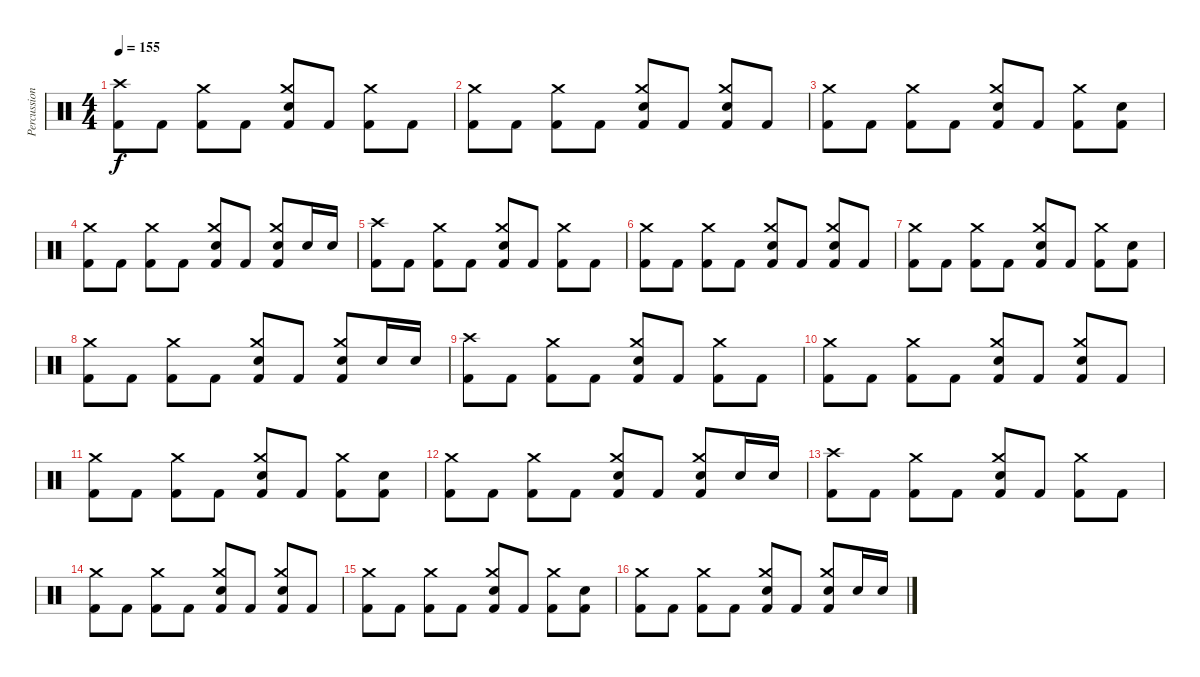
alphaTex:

\track ("Percussion" "Percussion") {instrument percussion}
\staff {score}
\articulation defaults
\ts (4 4)
\tempo 155
\clef neutral
\ks c
("Crash high (hit)" "Kick (hit) 2").8{dy f} "Kick (hit) 2".8 ("Crash medium (hit)" "Kick (hit) 2").8 "Kick (hit) 2".8 ("Crash medium (hit)" "Electric Snare (hit)" "Kick (hit) 2").8 "Kick (hit) 2".8 ("Crash medium (hit)" "Kick (hit) 2").8 "Kick (hit) 2".8 |
("Crash medium (hit)" "Kick (hit) 2").8 "Kick (hit) 2".8 ("Crash medium (hit)" "Kick (hit) 2").8 "Kick (hit) 2".8 ("Crash medium (hit)" "Electric Snare (hit)" "Kick (hit) 2").8 "Kick (hit) 2".8 ("Crash medium (hit)" "Electric Snare (hit)" "Kick (hit) 2").8 "Kick (hit) 2".8 |
("Crash medium (hit)" "Kick (hit) 2").8 "Kick (hit) 2".8 ("Crash medium (hit)" "Kick (hit) 2").8 "Kick (hit) 2".8 ("Crash medium (hit)" "Electric Snare (hit)" "Kick (hit) 2").8 "Kick (hit) 2".8 ("Crash medium (hit)" "Kick (hit) 2").8 ("Electric Snare (hit)" "Kick (hit) 2").8 |
("Crash medium (hit)" "Kick (hit) 2").8 "Kick (hit) 2".8 ("Crash medium (hit)" "Kick (hit) 2").8 "Kick (hit) 2".8 ("Crash medium (hit)" "Electric Snare (hit)" "Kick (hit) 2").8 "Kick (hit) 2".8 ("Crash medium (hit)" "Electric Snare (hit)" "Kick (hit) 2").8 "Electric Snare (hit)".16 "Electric Snare (hit)".16 |
("Crash high (hit)" "Kick (hit) 2").8 "Kick (hit) 2".8 ("Crash medium (hit)" "Kick (hit) 2").8 "Kick (hit) 2".8 ("Crash medium (hit)" "Electric Snare (hit)" "Kick (hit) 2").8 "Kick (hit) 2".8 ("Crash medium (hit)" "Kick (hit) 2").8 "Kick (hit) 2".8 |
("Crash medium (hit)" "Kick (hit) 2").8 "Kick (hit) 2".8 ("Crash medium (hit)" "Kick (hit) 2").8 "Kick (hit) 2".8 ("Crash medium (hit)" "Electric Snare (hit)" "Kick (hit) 2").8 "Kick (hit) 2".8 ("Crash medium (hit)" "Electric Snare (hit)" "Kick (hit) 2").8 "Kick (hit) 2".8 |
("Crash medium (hit)" "Kick (hit) 2").8 "Kick (hit) 2".8 ("Crash medium (hit)" "Kick (hit) 2").8 "Kick (hit) 2".8 ("Crash medium (hit)" "Electric Snare (hit)" "Kick (hit) 2").8 "Kick (hit) 2".8 ("Crash medium (hit)" "Kick (hit) 2").8 ("Electric Snare (hit)" "Kick (hit) 2").8 |
("Crash medium (hit)" "Kick (hit) 2").8 "Kick (hit) 2".8 ("Crash medium (hit)" "Kick (hit) 2").8 "Kick (hit) 2".8 ("Crash medium (hit)" "Electric Snare (hit)" "Kick (hit) 2").8 "Kick (hit) 2".8 ("Crash medium (hit)" "Electric Snare (hit)" "Kick (hit) 2").8 "Electric Snare (hit)".16 "Electric Snare (hit)".16 |
("Crash high (hit)" "Kick (hit) 2").8 "Kick (hit) 2".8 ("Crash medium (hit)" "Kick (hit) 2").8 "Kick (hit) 2".8 ("Crash medium (hit)" "Electric Snare (hit)" "Kick (hit) 2").8 "Kick (hit) 2".8 ("Crash medium (hit)" "Kick (hit) 2").8 "Kick (hit) 2".8 |
("Crash medium (hit)" "Kick (hit) 2").8 "Kick (hit) 2".8 ("Crash medium (hit)" "Kick (hit) 2").8 "Kick (hit) 2".8 ("Crash medium (hit)" "Electric Snare (hit)" "Kick (hit) 2").8 "Kick (hit) 2".8 ("Crash medium (hit)" "Electric Snare (hit)" "Kick (hit) 2").8 "Kick (hit) 2".8 |
("Crash medium (hit)" "Kick (hit) 2").8 "Kick (hit) 2".8 ("Crash medium (hit)" "Kick (hit) 2").8 "Kick (hit) 2".8 ("Crash medium (hit)" "Electric Snare (hit)" "Kick (hit) 2").8 "Kick (hit) 2".8 ("Crash medium (hit)" "Kick (hit) 2").8 ("Electric Snare (hit)" "Kick (hit) 2").8 |
("Crash medium (hit)" "Kick (hit) 2").8 "Kick (hit) 2".8 ("Crash medium (hit)" "Kick (hit) 2").8 "Kick (hit) 2".8 ("Crash medium (hit)" "Electric Snare (hit)" "Kick (hit) 2").8 "Kick (hit) 2".8 ("Crash medium (hit)" "Electric Snare (hit)" "Kick (hit) 2").8 "Electric Snare (hit)".16 "Electric Snare (hit)".16 |
("Crash high (hit)" "Kick (hit) 2").8 "Kick (hit) 2".8 ("Crash medium (hit)" "Kick (hit) 2").8 "Kick (hit) 2".8 ("Crash medium (hit)" "Electric Snare (hit)" "Kick (hit) 2").8 "Kick (hit) 2".8 ("Crash medium (hit)" "Kick (hit) 2").8 "Kick (hit) 2".8 |
("Crash medium (hit)" "Kick (hit) 2").8 "Kick (hit) 2".8 ("Crash medium (hit)" "Kick (hit) 2").8 "Kick (hit) 2".8 ("Crash medium (hit)" "Electric Snare (hit)" "Kick (hit) 2").8 "Kick (hit) 2".8 ("Crash medium (hit)" "Electric Snare (hit)" "Kick (hit) 2").8 "Kick (hit) 2".8 |
("Crash medium (hit)" "Kick (hit) 2").8 "Kick (hit) 2".8 ("Crash medium (hit)" "Kick (hit) 2").8 "Kick (hit) 2".8 ("Crash medium (hit)" "Electric Snare (hit)" "Kick (hit) 2").8 "Kick (hit) 2".8 ("Crash medium (hit)" "Kick (hit) 2").8 ("Electric Snare (hit)" "Kick (hit) 2").8 |
("Crash medium (hit)" "Kick (hit) 2").8 "Kick (hit) 2".8 ("Crash medium (hit)" "Kick (hit) 2").8 "Kick (hit) 2".8 ("Crash medium (hit)" "Electric Snare (hit)" "Kick (hit) 2").8 "Kick (hit) 2".8 ("Crash medium (hit)" "Electric Snare (hit)" "Kick (hit) 2").8 "Electric Snare (hit)".16 "Electric Snare (hit)".16
